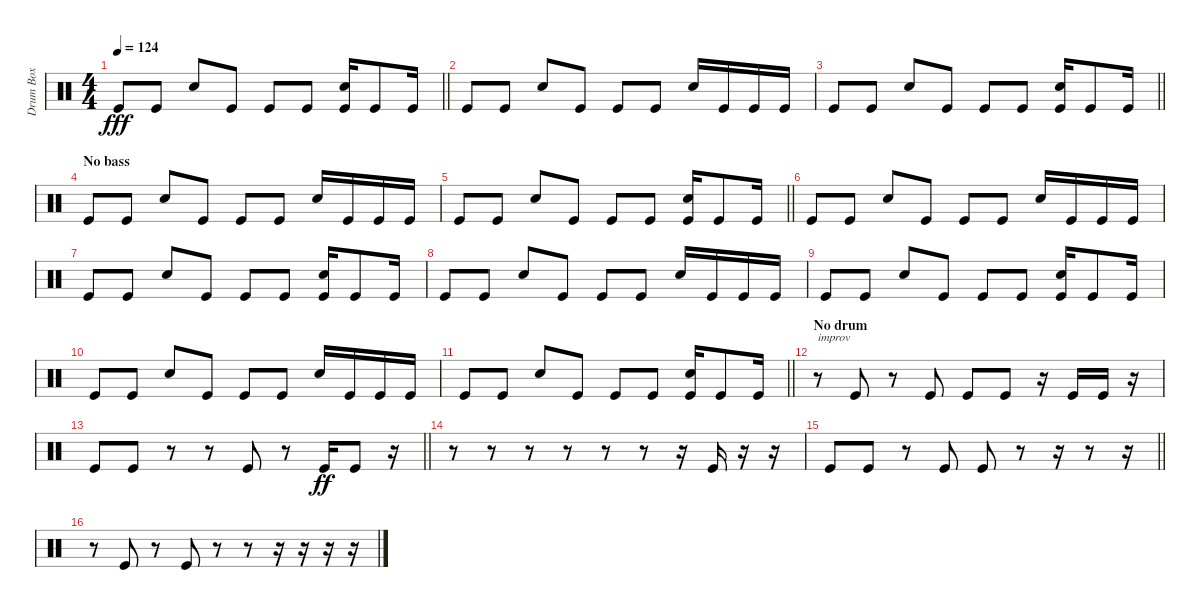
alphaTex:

\track ("Drum Box" "Drum Box") {instrument percussion}
\staff {score}
\articulation defaults
\ts (4 4)
\tempo 124
\clef neutral
\barLineRight lightlight
\ks c "Kick (hit)".8{dy fff} "Kick (hit)".8 "Snare (hit) 2".8 "Kick (hit)".8 "Kick (hit)".8 "Kick (hit)".8
("Snare (hit) 2" "Kick (hit)").16 "Kick (hit)".8 "Kick (hit)".16 |
"Kick (hit)".8 "Kick (hit)".8 "Snare (hit) 2".8 "Kick (hit)".8 "Kick (hit)".8 "Kick (hit)".8 "Snare (hit) 2".16 "Kick (hit)".16 "Kick (hit)".16 "Kick (hit)".16 |
\barLineRight lightlight "Kick (hit)".8 "Kick (hit)".8 "Snare (hit) 2".8 "Kick (hit)".8 "Kick (hit)".8 "Kick (hit)".8
("Snare (hit) 2" "Kick (hit)").16 "Kick (hit)".8 "Kick (hit)".16 |
\section ("" "No bass")
"Kick (hit)".8 "Kick (hit)".8 "Snare (hit) 2".8 "Kick (hit)".8 "Kick (hit)".8 "Kick (hit)".8 "Snare (hit) 2".16 "Kick (hit)".16 "Kick (hit)".16 "Kick (hit)".16 |
\barLineRight lightlight "Kick (hit)".8 "Kick (hit)".8 "Snare (hit) 2".8 "Kick (hit)".8 "Kick (hit)".8 "Kick (hit)".8
("Snare (hit) 2" "Kick (hit)").16 "Kick (hit)".8 "Kick (hit)".16 |
"Kick (hit)".8 "Kick (hit)".8 "Snare (hit) 2".8 "Kick (hit)".8 "Kick (hit)".8 "Kick (hit)".8 "Snare (hit) 2".16 "Kick (hit)".16 "Kick (hit)".16 "Kick (hit)".16 |
"Kick (hit)".8 "Kick (hit)".8 "Snare (hit) 2".8 "Kick (hit)".8 "Kick (hit)".8 "Kick (hit)".8 ("Snare (hit) 2" "Kick (hit)").16 "Kick (hit)".8 "Kick (hit)".16 |
"Kick (hit)".8 "Kick (hit)".8 "Snare (hit) 2".8 "Kick (hit)".8 "Kick (hit)".8 "Kick (hit)".8 "Snare (hit) 2".16 "Kick (hit)".16 "Kick (hit)".16 "Kick (hit)".16 |
"Kick (hit)".8 "Kick (hit)".8 "Snare (hit) 2".8 "Kick (hit)".8 "Kick (hit)".8 "Kick (hit)".8 ("Snare (hit) 2" "Kick (hit)").16 "Kick (hit)".8 "Kick (hit)".16 |
"Kick (hit)".8 "Kick (hit)".8 "Snare (hit) 2".8 "Kick (hit)".8 "Kick (hit)".8 "Kick (hit)".8 "Snare (hit) 2".16 "Kick (hit)".16 "Kick (hit)".16 "Kick (hit)".16 |
\barLineRight lightlight "Kick (hit)".8 "Kick (hit)".8 "Snare (hit) 2".8 "Kick (hit)".8 "Kick (hit)".8 "Kick (hit)".8
("Snare (hit) 2" "Kick (hit)").16 "Kick (hit)".8 "Kick (hit)".16 |
\section ("" "No drum")
r.8{txt "improv"} "Kick (hit)".8 r.8 "Kick (hit)".8 "Kick (hit)".8 "Kick (hit)".8 r.16 "Kick (hit)".16 "Kick (hit)".16 r.16 |
\barLineRight lightlight "Kick (hit)".8 "Kick (hit)".8
r.8 r.8 "Kick (hit)".8 r.8 "Kick (hit)".16{dy ff} "Kick (hit)".8 r.16 |
r.8 r.8 r.8 r.8 r.8 r.8 r.16 "Kick (hit)".16 r.16 r.16 |
\barLineRight lightlight "Kick (hit)".8 "Kick (hit)".8
r.8 "Kick (hit)".8 "Kick (hit)".8 r.8 r.16 r.8 r.16 |
r.8 "Kick (hit)".8 r.8 "Kick (hit)".8 r.8 r.8 r.16 r.16 r.16 r.16
